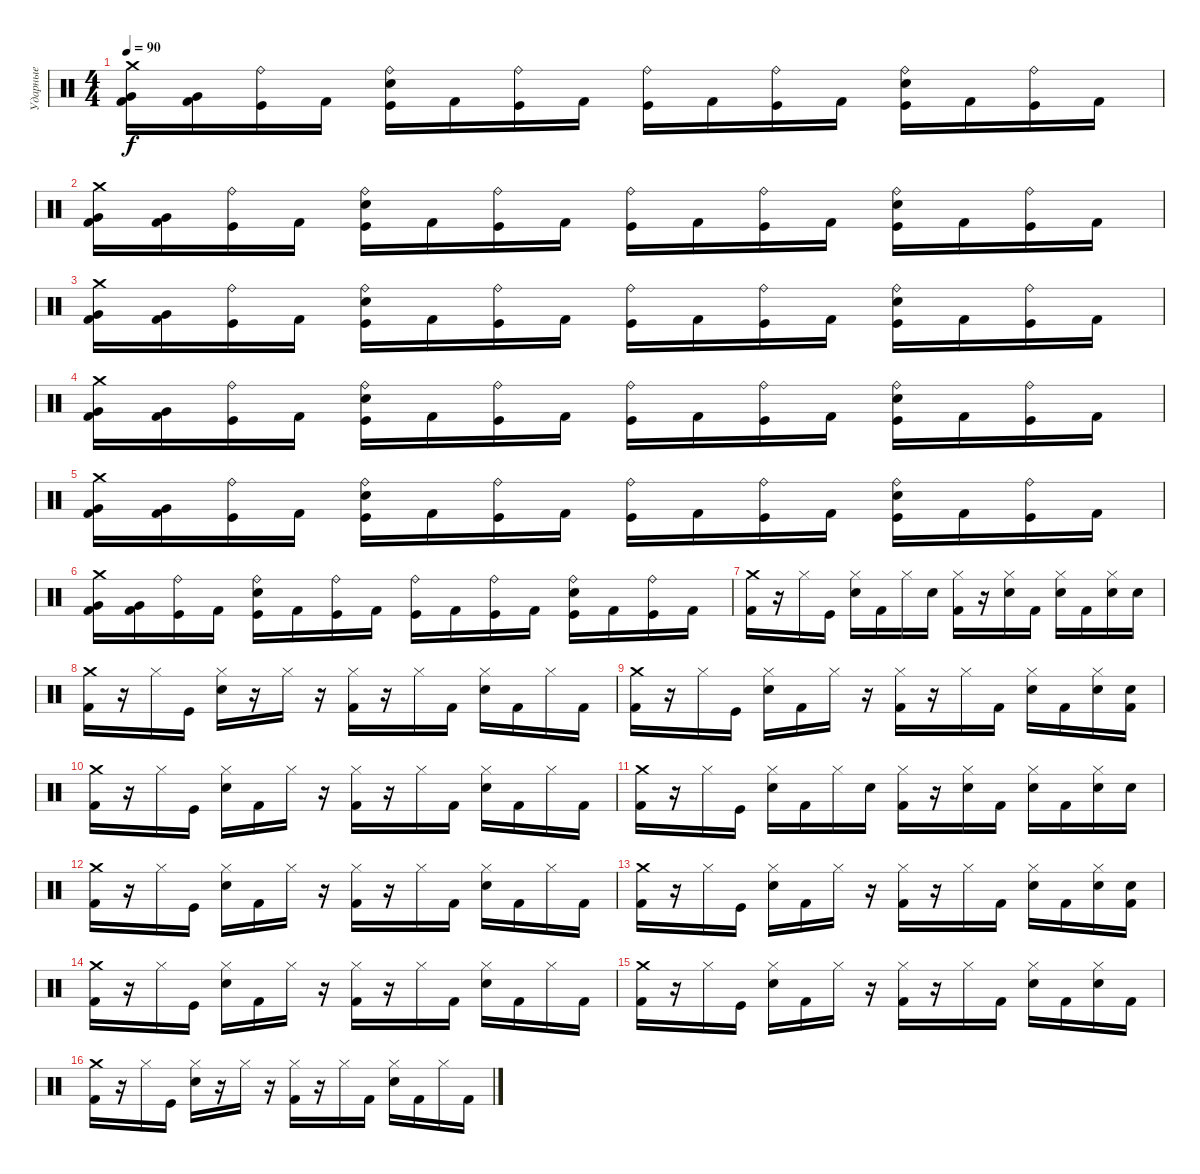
\track ("Ударные" "Ударные") {instrument percussion}
\staff {score}
\articulation defaults
\ts (4 4)
\tempo 90
\clef neutral
\ks c
("Very Low Tom (hit)" "Kick (hit) 2" "Crash medium (hit)").16{dy f} ("Very Low Tom (hit)" "Kick (hit) 2").16 ("Kick (hit)" "Ride (bell)").16 "Kick (hit) 2".16 ("Kick (hit)" "Electric Snare (hit)" "Ride (bell)").16 "Kick (hit) 2".16 ("Kick (hit)" "Ride (bell)").16 "Kick (hit) 2".16 ("Kick (hit)" "Ride (bell)").16 "Kick (hit) 2".16 ("Kick (hit)" "Ride (bell)").16 "Kick (hit) 2".16 ("Kick (hit)" "Electric Snare (hit)" "Ride (bell)").16 "Kick (hit) 2".16 ("Kick (hit)" "Ride (bell)").16 "Kick (hit) 2".16 |
("Very Low Tom (hit)" "Kick (hit) 2" "Crash medium (hit)").16 ("Very Low Tom (hit)" "Kick (hit) 2").16 ("Kick (hit)" "Ride (bell)").16 "Kick (hit) 2".16 ("Kick (hit)" "Electric Snare (hit)" "Ride (bell)").16 "Kick (hit) 2".16 ("Kick (hit)" "Ride (bell)").16 "Kick (hit) 2".16 ("Kick (hit)" "Ride (bell)").16 "Kick (hit) 2".16 ("Kick (hit)" "Ride (bell)").16 "Kick (hit) 2".16 ("Kick (hit)" "Electric Snare (hit)" "Ride (bell)").16 "Kick (hit) 2".16 ("Kick (hit)" "Ride (bell)").16 "Kick (hit) 2".16 |
("Very Low Tom (hit)" "Kick (hit) 2" "Crash medium (hit)").16 ("Very Low Tom (hit)" "Kick (hit) 2").16 ("Kick (hit)" "Ride (bell)").16 "Kick (hit) 2".16 ("Kick (hit)" "Electric Snare (hit)" "Ride (bell)").16 "Kick (hit) 2".16 ("Kick (hit)" "Ride (bell)").16 "Kick (hit) 2".16 ("Kick (hit)" "Ride (bell)").16 "Kick (hit) 2".16 ("Kick (hit)" "Ride (bell)").16 "Kick (hit) 2".16 ("Kick (hit)" "Electric Snare (hit)" "Ride (bell)").16 "Kick (hit) 2".16 ("Kick (hit)" "Ride (bell)").16 "Kick (hit) 2".16 |
("Very Low Tom (hit)" "Kick (hit) 2" "Crash medium (hit)").16 ("Very Low Tom (hit)" "Kick (hit) 2").16 ("Kick (hit)" "Ride (bell)").16 "Kick (hit) 2".16 ("Kick (hit)" "Electric Snare (hit)" "Ride (bell)").16 "Kick (hit) 2".16 ("Kick (hit)" "Ride (bell)").16 "Kick (hit) 2".16 ("Kick (hit)" "Ride (bell)").16 "Kick (hit) 2".16 ("Kick (hit)" "Ride (bell)").16 "Kick (hit) 2".16 ("Kick (hit)" "Electric Snare (hit)" "Ride (bell)").16 "Kick (hit) 2".16 ("Kick (hit)" "Ride (bell)").16 "Kick (hit) 2".16 |
("Very Low Tom (hit)" "Kick (hit) 2" "Crash medium (hit)").16 ("Very Low Tom (hit)" "Kick (hit) 2").16 ("Kick (hit)" "Ride (bell)").16 "Kick (hit) 2".16 ("Kick (hit)" "Electric Snare (hit)" "Ride (bell)").16 "Kick (hit) 2".16 ("Kick (hit)" "Ride (bell)").16 "Kick (hit) 2".16 ("Kick (hit)" "Ride (bell)").16 "Kick (hit) 2".16 ("Kick (hit)" "Ride (bell)").16 "Kick (hit) 2".16 ("Kick (hit)" "Electric Snare (hit)" "Ride (bell)").16 "Kick (hit) 2".16 ("Kick (hit)" "Ride (bell)").16 "Kick (hit) 2".16 |
("Very Low Tom (hit)" "Kick (hit) 2" "Crash medium (hit)").16 ("Very Low Tom (hit)" "Kick (hit) 2").16 ("Kick (hit)" "Ride (bell)").16 "Kick (hit) 2".16 ("Kick (hit)" "Electric Snare (hit)" "Ride (bell)").16 "Kick (hit) 2".16 ("Kick (hit)" "Ride (bell)").16 "Kick (hit) 2".16 ("Kick (hit)" "Ride (bell)").16 "Kick (hit) 2".16 ("Kick (hit)" "Ride (bell)").16 "Kick (hit) 2".16 ("Kick (hit)" "Electric Snare (hit)" "Ride (bell)").16 "Kick (hit) 2".16 ("Kick (hit)" "Ride (bell)").16 "Kick (hit) 2".16 |
("Crash medium (hit)" "Kick (hit) 2").16 r.16 "Hi-Hat (closed)".16 "Kick (hit)".16 ("Hi-Hat (closed)" "Electric Snare (hit)").16 "Kick (hit) 2".16 "Hi-Hat (closed)".16 "Electric Snare (hit)".16 ("Hi-Hat (closed)" "Kick (hit) 2").16 r.16 ("Hi-Hat (closed)" "Electric Snare (hit)").16 "Kick (hit) 2".16 ("Hi-Hat (closed)" "Electric Snare (hit)").16 "Kick (hit) 2".16 ("Hi-Hat (closed)" "Electric Snare (hit)").16 "Electric Snare (hit)".16 |
("Crash medium (hit)" "Kick (hit) 2").16 r.16 "Hi-Hat (closed)".16 "Kick (hit)".16 ("Hi-Hat (closed)" "Electric Snare (hit)").16 r.16 "Hi-Hat (closed)".16 r.16 ("Hi-Hat (closed)" "Kick (hit) 2").16 r.16 "Hi-Hat (closed)".16 "Kick (hit) 2".16 ("Hi-Hat (closed)" "Electric Snare (hit)").16 "Kick (hit) 2".16 "Hi-Hat (closed)".16 "Kick (hit) 2".16 |
("Crash medium (hit)" "Kick (hit) 2").16 r.16 "Hi-Hat (closed)".16 "Kick (hit)".16 ("Hi-Hat (closed)" "Electric Snare (hit)").16 "Kick (hit) 2".16 "Hi-Hat (closed)".16 r.16 ("Hi-Hat (closed)" "Kick (hit) 2").16 r.16 "Hi-Hat (closed)".16 "Kick (hit) 2".16 ("Hi-Hat (closed)" "Electric Snare (hit)").16 "Kick (hit) 2".16 ("Hi-Hat (closed)" "Electric Snare (hit)").16 ("Kick (hit) 2" "Electric Snare (hit)").16 |
("Crash medium (hit)" "Kick (hit) 2").16 r.16 "Hi-Hat (closed)".16 "Kick (hit)".16 ("Hi-Hat (closed)" "Electric Snare (hit)").16 "Kick (hit) 2".16 "Hi-Hat (closed)".16 r.16 ("Hi-Hat (closed)" "Kick (hit) 2").16 r.16 "Hi-Hat (closed)".16 "Kick (hit) 2".16 ("Hi-Hat (closed)" "Electric Snare (hit)").16 "Kick (hit) 2".16 "Hi-Hat (closed)".16 "Kick (hit) 2".16 |
("Crash medium (hit)" "Kick (hit) 2").16 r.16 "Hi-Hat (closed)".16 "Kick (hit)".16 ("Hi-Hat (closed)" "Electric Snare (hit)").16 "Kick (hit) 2".16 "Hi-Hat (closed)".16 "Electric Snare (hit)".16 ("Hi-Hat (closed)" "Kick (hit) 2").16 r.16 ("Hi-Hat (closed)" "Electric Snare (hit)").16 "Kick (hit) 2".16 ("Hi-Hat (closed)" "Electric Snare (hit)").16 "Kick (hit) 2".16 ("Hi-Hat (closed)" "Electric Snare (hit)").16 "Electric Snare (hit)".16 |
("Crash medium (hit)" "Kick (hit) 2").16 r.16 "Hi-Hat (closed)".16 "Kick (hit)".16 ("Hi-Hat (closed)" "Electric Snare (hit)").16 "Kick (hit) 2".16 "Hi-Hat (closed)".16 r.16 ("Hi-Hat (closed)" "Kick (hit) 2").16 r.16 "Hi-Hat (closed)".16 "Kick (hit) 2".16 ("Hi-Hat (closed)" "Electric Snare (hit)").16 "Kick (hit) 2".16 "Hi-Hat (closed)".16 "Kick (hit) 2".16 |
("Crash medium (hit)" "Kick (hit) 2").16 r.16 "Hi-Hat (closed)".16 "Kick (hit)".16 ("Hi-Hat (closed)" "Electric Snare (hit)").16 "Kick (hit) 2".16 "Hi-Hat (closed)".16 r.16 ("Hi-Hat (closed)" "Kick (hit) 2").16 r.16 "Hi-Hat (closed)".16 "Kick (hit) 2".16 ("Hi-Hat (closed)" "Electric Snare (hit)").16 "Kick (hit) 2".16 ("Hi-Hat (closed)" "Electric Snare (hit)").16 ("Kick (hit) 2" "Electric Snare (hit)").16 |
("Crash medium (hit)" "Kick (hit) 2").16 r.16 "Hi-Hat (closed)".16 "Kick (hit)".16 ("Hi-Hat (closed)" "Electric Snare (hit)").16 "Kick (hit) 2".16 "Hi-Hat (closed)".16 r.16 ("Hi-Hat (closed)" "Kick (hit) 2").16 r.16 "Hi-Hat (closed)".16 "Kick (hit) 2".16 ("Hi-Hat (closed)" "Electric Snare (hit)").16 "Kick (hit) 2".16 "Hi-Hat (closed)".16 "Kick (hit) 2".16 |
("Crash medium (hit)" "Kick (hit) 2").16 r.16 "Hi-Hat (closed)".16 "Kick (hit)".16 ("Hi-Hat (closed)" "Electric Snare (hit)").16 "Kick (hit) 2".16 "Hi-Hat (closed)".16 r.16 ("Hi-Hat (closed)" "Kick (hit) 2").16 r.16 "Hi-Hat (closed)".16 "Kick (hit) 2".16 ("Hi-Hat (closed)" "Electric Snare (hit)").16 "Kick (hit) 2".16 ("Hi-Hat (closed)" "Electric Snare (hit)").16 "Kick (hit) 2".16 |
("Crash medium (hit)" "Kick (hit) 2").16 r.16 "Hi-Hat (closed)".16 "Kick (hit)".16 ("Hi-Hat (closed)" "Electric Snare (hit)").16 r.16 "Hi-Hat (closed)".16 r.16 ("Hi-Hat (closed)" "Kick (hit) 2").16 r.16 "Hi-Hat (closed)".16 "Kick (hit) 2".16 ("Hi-Hat (closed)" "Electric Snare (hit)").16 "Kick (hit) 2".16 "Hi-Hat (closed)".16 "Kick (hit) 2".16
